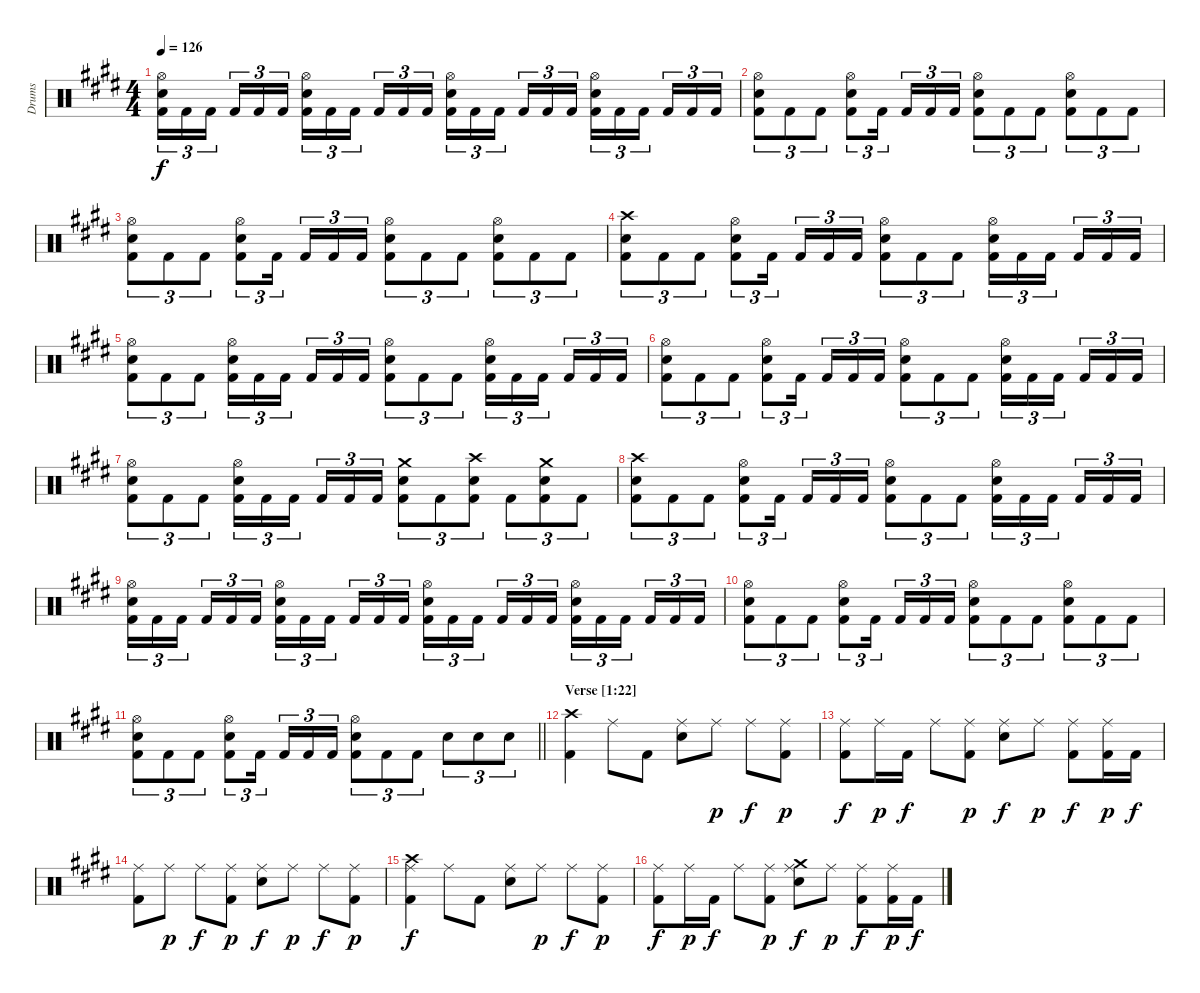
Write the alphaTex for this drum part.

\track ("Drums" "Drums") {instrument percussion}
\staff {score}
\articulation defaults
\ts (4 4)
\tempo 126
\clef neutral
\ks c#minor
("Hi-Hat (open)" "Snare (hit) 2" "Kick (hit) 2").16{tu (3 2) dy f} "Kick (hit) 2".16{tu (3 2)} "Kick (hit) 2".16{tu (3 2) beam splitsecondary} "Kick (hit) 2".16{tu (3 2)} "Kick (hit) 2".16{tu (3 2)} "Kick (hit) 2".16{tu (3 2)} ("Hi-Hat (open)" "Snare (hit) 2" "Kick (hit) 2").16{tu (3 2)} "Kick (hit) 2".16{tu (3 2)} "Kick (hit) 2".16{tu (3 2) beam splitsecondary} "Kick (hit) 2".16{tu (3 2)} "Kick (hit) 2".16{tu (3 2)} "Kick (hit) 2".16{tu (3 2)} ("Hi-Hat (open)" "Snare (hit) 2" "Kick (hit) 2").16{tu (3 2)} "Kick (hit) 2".16{tu (3 2)} "Kick (hit) 2".16{tu (3 2) beam splitsecondary} "Kick (hit) 2".16{tu (3 2)} "Kick (hit) 2".16{tu (3 2)} "Kick (hit) 2".16{tu (3 2)} ("Hi-Hat (open)" "Snare (hit) 2" "Kick (hit) 2").16{tu (3 2)} "Kick (hit) 2".16{tu (3 2)} "Kick (hit) 2".16{tu (3 2) beam splitsecondary} "Kick (hit) 2".16{tu (3 2)} "Kick (hit) 2".16{tu (3 2)} "Kick (hit) 2".16{tu (3 2)} |
("Hi-Hat (open)" "Snare (hit) 2" "Kick (hit) 2").8{tu (3 2)} "Kick (hit) 2".8{tu (3 2)} "Kick (hit) 2".8{tu (3 2)} ("Hi-Hat (open)" "Snare (hit) 2" "Kick (hit) 2").8{tu (3 2)} "Kick (hit) 2".16{tu (3 2) beam splitsecondary} "Kick (hit) 2".16{tu (3 2)} "Kick (hit) 2".16{tu (3 2)} "Kick (hit) 2".16{tu (3 2)} ("Hi-Hat (open)" "Snare (hit) 2" "Kick (hit) 2").8{tu (3 2)} "Kick (hit) 2".8{tu (3 2)} "Kick (hit) 2".8{tu (3 2)} ("Hi-Hat (open)" "Snare (hit) 2" "Kick (hit) 2").8{tu (3 2)} "Kick (hit) 2".8{tu (3 2)} "Kick (hit) 2".8{tu (3 2)} |
("Hi-Hat (open)" "Snare (hit) 2" "Kick (hit) 2").8{tu (3 2)} "Kick (hit) 2".8{tu (3 2)} "Kick (hit) 2".8{tu (3 2)} ("Hi-Hat (open)" "Snare (hit) 2" "Kick (hit) 2").8{tu (3 2)} "Kick (hit) 2".16{tu (3 2) beam splitsecondary} "Kick (hit) 2".16{tu (3 2)} "Kick (hit) 2".16{tu (3 2)} "Kick (hit) 2".16{tu (3 2)} ("Hi-Hat (open)" "Snare (hit) 2" "Kick (hit) 2").8{tu (3 2)} "Kick (hit) 2".8{tu (3 2)} "Kick (hit) 2".8{tu (3 2)} ("Hi-Hat (open)" "Snare (hit) 2" "Kick (hit) 2").8{tu (3 2)} "Kick (hit) 2".8{tu (3 2)} "Kick (hit) 2".8{tu (3 2)} |
("Crash high (hit)" "Snare (hit) 2" "Kick (hit) 2").8{tu (3 2)} "Kick (hit) 2".8{tu (3 2)} "Kick (hit) 2".8{tu (3 2)} ("Hi-Hat (open)" "Snare (hit) 2" "Kick (hit) 2").8{tu (3 2)} "Kick (hit) 2".16{tu (3 2) beam splitsecondary} "Kick (hit) 2".16{tu (3 2)} "Kick (hit) 2".16{tu (3 2)} "Kick (hit) 2".16{tu (3 2)} ("Hi-Hat (open)" "Snare (hit) 2" "Kick (hit) 2").8{tu (3 2)} "Kick (hit) 2".8{tu (3 2)} "Kick (hit) 2".8{tu (3 2)} ("Hi-Hat (open)" "Snare (hit) 2" "Kick (hit) 2").16{tu (3 2)} "Kick (hit) 2".16{tu (3 2)} "Kick (hit) 2".16{tu (3 2) beam splitsecondary} "Kick (hit) 2".16{tu (3 2)} "Kick (hit) 2".16{tu (3 2)} "Kick (hit) 2".16{tu (3 2)} |
("Hi-Hat (open)" "Snare (hit) 2" "Kick (hit) 2").8{tu (3 2)} "Kick (hit) 2".8{tu (3 2)} "Kick (hit) 2".8{tu (3 2)} ("Hi-Hat (open)" "Snare (hit) 2" "Kick (hit) 2").16{tu (3 2)} "Kick (hit) 2".16{tu (3 2)} "Kick (hit) 2".16{tu (3 2) beam splitsecondary} "Kick (hit) 2".16{tu (3 2)} "Kick (hit) 2".16{tu (3 2)} "Kick (hit) 2".16{tu (3 2)} ("Hi-Hat (open)" "Snare (hit) 2" "Kick (hit) 2").8{tu (3 2)} "Kick (hit) 2".8{tu (3 2)} "Kick (hit) 2".8{tu (3 2)} ("Hi-Hat (open)" "Snare (hit) 2" "Kick (hit) 2").16{tu (3 2)} "Kick (hit) 2".16{tu (3 2)} "Kick (hit) 2".16{tu (3 2) beam splitsecondary} "Kick (hit) 2".16{tu (3 2)} "Kick (hit) 2".16{tu (3 2)} "Kick (hit) 2".16{tu (3 2)} |
("Hi-Hat (open)" "Snare (hit) 2" "Kick (hit) 2").8{tu (3 2)} "Kick (hit) 2".8{tu (3 2)} "Kick (hit) 2".8{tu (3 2)} ("Hi-Hat (open)" "Snare (hit) 2" "Kick (hit) 2").8{tu (3 2)} "Kick (hit) 2".16{tu (3 2) beam splitsecondary} "Kick (hit) 2".16{tu (3 2)} "Kick (hit) 2".16{tu (3 2)} "Kick (hit) 2".16{tu (3 2)} ("Hi-Hat (open)" "Snare (hit) 2" "Kick (hit) 2").8{tu (3 2)} "Kick (hit) 2".8{tu (3 2)} "Kick (hit) 2".8{tu (3 2)} ("Hi-Hat (open)" "Snare (hit) 2" "Kick (hit) 2").16{tu (3 2)} "Kick (hit) 2".16{tu (3 2)} "Kick (hit) 2".16{tu (3 2) beam splitsecondary} "Kick (hit) 2".16{tu (3 2)} "Kick (hit) 2".16{tu (3 2)} "Kick (hit) 2".16{tu (3 2)} |
("Hi-Hat (open)" "Snare (hit) 2" "Kick (hit) 2").8{tu (3 2)} "Kick (hit) 2".8{tu (3 2)} "Kick (hit) 2".8{tu (3 2)} ("Hi-Hat (open)" "Snare (hit) 2" "Kick (hit) 2").16{tu (3 2)} "Kick (hit) 2".16{tu (3 2)} "Kick (hit) 2".16{tu (3 2) beam splitsecondary} "Kick (hit) 2".16{tu (3 2)} "Kick (hit) 2".16{tu (3 2)} "Kick (hit) 2".16{tu (3 2)} ("Crash medium (hit)" "Snare (hit) 2" "Kick (hit) 2").8{tu (3 2)} "Kick (hit) 2".8{tu (3 2)} ("Crash high (hit)" "Snare (hit) 2" "Kick (hit) 2").8{tu (3 2)} "Kick (hit) 2".8{tu (3 2)} ("Crash medium (hit)" "Snare (hit) 2" "Kick (hit) 2").8{tu (3 2)} "Kick (hit) 2".8{tu (3 2)} |
("Crash high (hit)" "Snare (hit) 2" "Kick (hit) 2").8{tu (3 2)} "Kick (hit) 2".8{tu (3 2)} "Kick (hit) 2".8{tu (3 2)} ("Hi-Hat (open)" "Snare (hit) 2" "Kick (hit) 2").8{tu (3 2)} "Kick (hit) 2".16{tu (3 2) beam splitsecondary} "Kick (hit) 2".16{tu (3 2)} "Kick (hit) 2".16{tu (3 2)} "Kick (hit) 2".16{tu (3 2)} ("Hi-Hat (open)" "Snare (hit) 2" "Kick (hit) 2").8{tu (3 2)} "Kick (hit) 2".8{tu (3 2)} "Kick (hit) 2".8{tu (3 2)} ("Hi-Hat (open)" "Snare (hit) 2" "Kick (hit) 2").16{tu (3 2)} "Kick (hit) 2".16{tu (3 2)} "Kick (hit) 2".16{tu (3 2) beam splitsecondary} "Kick (hit) 2".16{tu (3 2)} "Kick (hit) 2".16{tu (3 2)} "Kick (hit) 2".16{tu (3 2)} |
("Hi-Hat (open)" "Snare (hit) 2" "Kick (hit) 2").16{tu (3 2)} "Kick (hit) 2".16{tu (3 2)} "Kick (hit) 2".16{tu (3 2) beam splitsecondary} "Kick (hit) 2".16{tu (3 2)} "Kick (hit) 2".16{tu (3 2)} "Kick (hit) 2".16{tu (3 2)} ("Hi-Hat (open)" "Snare (hit) 2" "Kick (hit) 2").16{tu (3 2)} "Kick (hit) 2".16{tu (3 2)} "Kick (hit) 2".16{tu (3 2) beam splitsecondary} "Kick (hit) 2".16{tu (3 2)} "Kick (hit) 2".16{tu (3 2)} "Kick (hit) 2".16{tu (3 2)} ("Hi-Hat (open)" "Snare (hit) 2" "Kick (hit) 2").16{tu (3 2)} "Kick (hit) 2".16{tu (3 2)} "Kick (hit) 2".16{tu (3 2) beam splitsecondary} "Kick (hit) 2".16{tu (3 2)} "Kick (hit) 2".16{tu (3 2)} "Kick (hit) 2".16{tu (3 2)} ("Hi-Hat (open)" "Snare (hit) 2" "Kick (hit) 2").16{tu (3 2)} "Kick (hit) 2".16{tu (3 2)} "Kick (hit) 2".16{tu (3 2) beam splitsecondary} "Kick (hit) 2".16{tu (3 2)} "Kick (hit) 2".16{tu (3 2)} "Kick (hit) 2".16{tu (3 2)} |
("Hi-Hat (open)" "Snare (hit) 2" "Kick (hit) 2").8{tu (3 2)} "Kick (hit) 2".8{tu (3 2)} "Kick (hit) 2".8{tu (3 2)} ("Hi-Hat (open)" "Snare (hit) 2" "Kick (hit) 2").8{tu (3 2)} "Kick (hit) 2".16{tu (3 2) beam splitsecondary} "Kick (hit) 2".16{tu (3 2)} "Kick (hit) 2".16{tu (3 2)} "Kick (hit) 2".16{tu (3 2)} ("Hi-Hat (open)" "Snare (hit) 2" "Kick (hit) 2").8{tu (3 2)} "Kick (hit) 2".8{tu (3 2)} "Kick (hit) 2".8{tu (3 2)} ("Hi-Hat (open)" "Snare (hit) 2" "Kick (hit) 2").8{tu (3 2)} "Kick (hit) 2".8{tu (3 2)} "Kick (hit) 2".8{tu (3 2)} |
\barLineRight lightlight
("Hi-Hat (open)" "Snare (hit) 2" "Kick (hit) 2").8{tu (3 2)} "Kick (hit) 2".8{tu (3 2)} "Kick (hit) 2".8{tu (3 2)} ("Hi-Hat (open)" "Snare (hit) 2" "Kick (hit) 2").8{tu (3 2)} "Kick (hit) 2".16{tu (3 2) beam splitsecondary} "Kick (hit) 2".16{tu (3 2)} "Kick (hit) 2".16{tu (3 2)} "Kick (hit) 2".16{tu (3 2)} ("Hi-Hat (open)" "Snare (hit) 2" "Kick (hit) 2").8{tu (3 2)} "Kick (hit) 2".8{tu (3 2)} "Kick (hit) 2".8{tu (3 2)} "Snare (hit) 2".8{tu (3 2)} "Snare (hit) 2".8{tu (3 2)} "Snare (hit) 2".8{tu (3 2)} |
\section ("" "Verse [1:22]")
("Crash high (hit)" "Kick (hit) 2").4 "Ride (middle)".8 "Kick (hit) 2".8 ("Ride (middle)" "Snare (hit) 2").8 "Ride (middle)".8{dy p} "Ride (middle)".8{dy f} ("Ride (middle)" "Kick (hit) 2").8{dy p} |
("Ride (middle)" "Kick (hit) 2").8{dy f} "Ride (middle)".16{dy p} "Kick (hit) 2".16{dy f} "Ride (middle)".8 ("Ride (middle)" "Kick (hit) 2").8{dy p} ("Ride (middle)" "Snare (hit) 2").8{dy f} "Ride (middle)".8{dy p} ("Ride (middle)" "Kick (hit) 2").8{dy f} ("Ride (middle)" "Kick (hit) 2").16{dy p} "Kick (hit) 2".16{dy f} |
("Ride (middle)" "Kick (hit) 2").8 "Ride (middle)".8{dy p} "Ride (middle)".8{dy f} ("Ride (middle)" "Kick (hit) 2").8{dy p} ("Ride (middle)" "Snare (hit) 2").8{dy f} "Ride (middle)".8{dy p} "Ride (middle)".8{dy f} ("Ride (middle)" "Kick (hit) 2").8{dy p} |
("Crash high (hit)" "Ride (middle)" "Kick (hit) 2").4{dy f} "Ride (middle)".8 "Kick (hit) 2".8 ("Ride (middle)" "Snare (hit) 2").8 "Ride (middle)".8{dy p} "Ride (middle)".8{dy f} ("Ride (middle)" "Kick (hit) 2").8{dy p} |
("Ride (middle)" "Kick (hit) 2").8{dy f} "Ride (middle)".16{dy p} "Kick (hit) 2".16{dy f} "Ride (middle)".8 ("Ride (middle)" "Kick (hit) 2").8{dy p} ("Crash medium (hit)" "Ride (middle)" "Snare (hit) 2").8{dy f} "Ride (middle)".8{dy p} ("Ride (middle)" "Kick (hit) 2").8{dy f} ("Ride (middle)" "Kick (hit) 2").16{dy p} "Kick (hit) 2".16{dy f}
